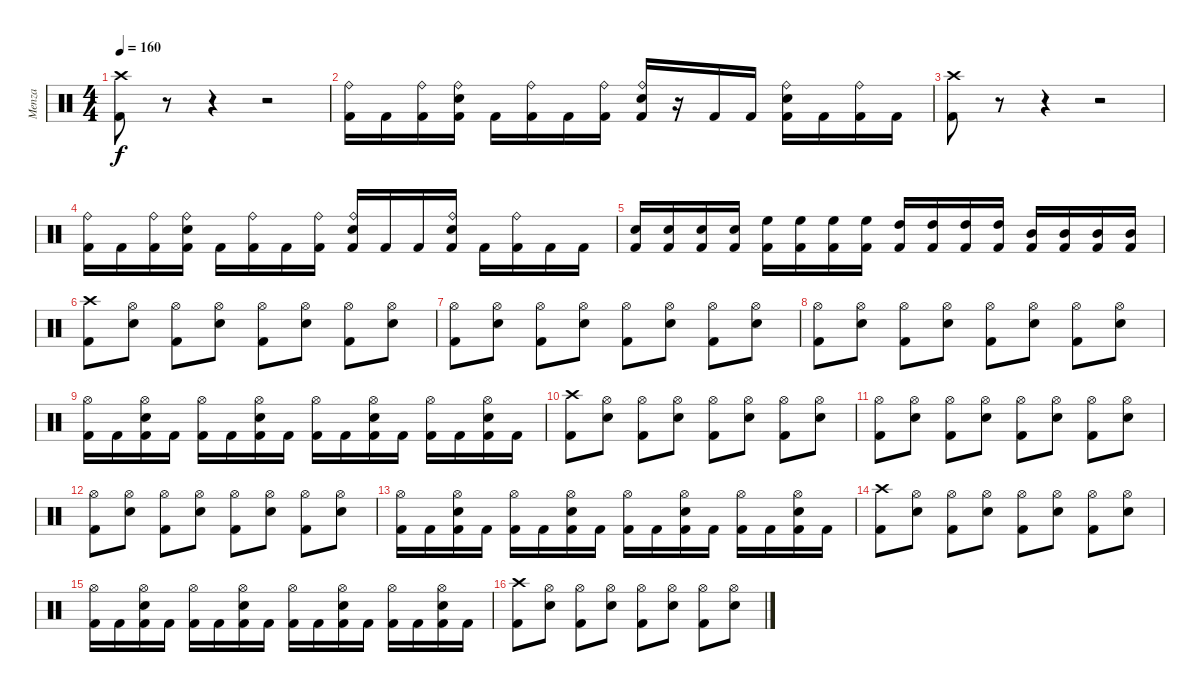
\track ("Menza" "Menza") {instrument percussion}
\staff {score}
\articulation defaults
\ts (4 4)
\tempo 160
\clef neutral
\ks c
("Crash high (hit)" "Kick (hit) 2").8{dy f} r.8 r.4 r.2 |
("Ride (bell)" "Kick (hit) 2").16 "Kick (hit) 2".16 ("Ride (bell)" "Kick (hit) 2").16 ("Ride (bell)" "Snare (hit) 2" "Kick (hit) 2").16 "Kick (hit) 2".16 ("Ride (bell)" "Kick (hit) 2").16 "Kick (hit) 2".16 ("Ride (bell)" "Kick (hit) 2").16 ("Ride (bell)" "Snare (hit) 2" "Kick (hit) 2").16 r.16 "Kick (hit) 2".16 "Kick (hit) 2".16 ("Ride (bell)" "Snare (hit) 2" "Kick (hit) 2").16 "Kick (hit) 2".16 ("Ride (bell)" "Kick (hit) 2").16 "Kick (hit) 2".16 |
("Crash high (hit)" "Kick (hit) 2").8 r.8 r.4 r.2 |
("Ride (bell)" "Kick (hit) 2").16 "Kick (hit) 2".16 ("Ride (bell)" "Kick (hit) 2").16 ("Ride (bell)" "Snare (hit) 2" "Kick (hit) 2").16 "Kick (hit) 2".16 ("Ride (bell)" "Kick (hit) 2").16 "Kick (hit) 2".16 ("Ride (bell)" "Kick (hit) 2").16 ("Ride (bell)" "Snare (hit) 2" "Kick (hit) 2").16 "Kick (hit) 2".16 "Kick (hit) 2".16 ("Ride (bell)" "Snare (hit) 2" "Kick (hit) 2").16 "Kick (hit) 2".16 ("Ride (bell)" "Kick (hit) 2").16 "Kick (hit) 2".16 "Kick (hit) 2".16 |
("Snare (hit) 2" "Kick (hit) 2").16 ("Snare (hit) 2" "Kick (hit) 2").16 ("Snare (hit) 2" "Kick (hit) 2").16 ("Snare (hit) 2" "Kick (hit) 2").16 ("High Floor Tom (hit)" "Kick (hit) 2").16 ("High Floor Tom (hit)" "Kick (hit) 2").16 ("High Floor Tom (hit)" "Kick (hit) 2").16 ("High Floor Tom (hit)" "Kick (hit) 2").16 ("High Tom (hit)" "Kick (hit) 2").16 ("High Tom (hit)" "Kick (hit) 2").16 ("High Tom (hit)" "Kick (hit) 2").16 ("High Tom (hit)" "Kick (hit) 2").16 ("Mid Tom (hit)" "Kick (hit) 2").16 ("Mid Tom (hit)" "Kick (hit) 2").16 ("Mid Tom (hit)" "Kick (hit) 2").16 ("Mid Tom (hit)" "Kick (hit) 2").16 |
("Crash high (hit)" "Kick (hit) 2").8 ("Hi-Hat (open)" "Snare (hit) 2").8 ("Hi-Hat (open)" "Kick (hit) 2").8 ("Hi-Hat (open)" "Snare (hit) 2").8 ("Hi-Hat (open)" "Kick (hit) 2").8 ("Hi-Hat (open)" "Snare (hit) 2").8 ("Hi-Hat (open)" "Kick (hit) 2").8 ("Hi-Hat (open)" "Snare (hit) 2").8 |
("Hi-Hat (open)" "Kick (hit) 2").8 ("Hi-Hat (open)" "Snare (hit) 2").8 ("Hi-Hat (open)" "Kick (hit) 2").8 ("Hi-Hat (open)" "Snare (hit) 2").8 ("Hi-Hat (open)" "Kick (hit) 2").8 ("Hi-Hat (open)" "Snare (hit) 2").8 ("Hi-Hat (open)" "Kick (hit) 2").8 ("Hi-Hat (open)" "Snare (hit) 2").8 |
("Hi-Hat (open)" "Kick (hit) 2").8 ("Hi-Hat (open)" "Snare (hit) 2").8 ("Hi-Hat (open)" "Kick (hit) 2").8 ("Hi-Hat (open)" "Snare (hit) 2").8 ("Hi-Hat (open)" "Kick (hit) 2").8 ("Hi-Hat (open)" "Snare (hit) 2").8 ("Hi-Hat (open)" "Kick (hit) 2").8 ("Hi-Hat (open)" "Snare (hit) 2").8 |
("Hi-Hat (open)" "Kick (hit) 2").16 "Kick (hit) 2".16 ("Hi-Hat (open)" "Snare (hit) 2" "Kick (hit) 2").16 "Kick (hit) 2".16 ("Hi-Hat (open)" "Kick (hit) 2").16 "Kick (hit) 2".16 ("Hi-Hat (open)" "Snare (hit) 2" "Kick (hit) 2").16 "Kick (hit) 2".16 ("Hi-Hat (open)" "Kick (hit) 2").16 "Kick (hit) 2".16 ("Hi-Hat (open)" "Snare (hit) 2" "Kick (hit) 2").16 "Kick (hit) 2".16 ("Hi-Hat (open)" "Kick (hit) 2").16 "Kick (hit) 2".16 ("Hi-Hat (open)" "Snare (hit) 2" "Kick (hit) 2").16 "Kick (hit) 2".16 |
("Crash high (hit)" "Kick (hit) 2").8 ("Hi-Hat (open)" "Snare (hit) 2").8 ("Hi-Hat (open)" "Kick (hit) 2").8 ("Hi-Hat (open)" "Snare (hit) 2").8 ("Hi-Hat (open)" "Kick (hit) 2").8 ("Hi-Hat (open)" "Snare (hit) 2").8 ("Hi-Hat (open)" "Kick (hit) 2").8 ("Hi-Hat (open)" "Snare (hit) 2").8 |
("Hi-Hat (open)" "Kick (hit) 2").8 ("Hi-Hat (open)" "Snare (hit) 2").8 ("Hi-Hat (open)" "Kick (hit) 2").8 ("Hi-Hat (open)" "Snare (hit) 2").8 ("Hi-Hat (open)" "Kick (hit) 2").8 ("Hi-Hat (open)" "Snare (hit) 2").8 ("Hi-Hat (open)" "Kick (hit) 2").8 ("Hi-Hat (open)" "Snare (hit) 2").8 |
("Hi-Hat (open)" "Kick (hit) 2").8 ("Hi-Hat (open)" "Snare (hit) 2").8 ("Hi-Hat (open)" "Kick (hit) 2").8 ("Hi-Hat (open)" "Snare (hit) 2").8 ("Hi-Hat (open)" "Kick (hit) 2").8 ("Hi-Hat (open)" "Snare (hit) 2").8 ("Hi-Hat (open)" "Kick (hit) 2").8 ("Hi-Hat (open)" "Snare (hit) 2").8 |
("Hi-Hat (open)" "Kick (hit) 2").16 "Kick (hit) 2".16 ("Hi-Hat (open)" "Snare (hit) 2" "Kick (hit) 2").16 "Kick (hit) 2".16 ("Hi-Hat (open)" "Kick (hit) 2").16 "Kick (hit) 2".16 ("Hi-Hat (open)" "Snare (hit) 2" "Kick (hit) 2").16 "Kick (hit) 2".16 ("Hi-Hat (open)" "Kick (hit) 2").16 "Kick (hit) 2".16 ("Hi-Hat (open)" "Snare (hit) 2" "Kick (hit) 2").16 "Kick (hit) 2".16 ("Hi-Hat (open)" "Kick (hit) 2").16 "Kick (hit) 2".16 ("Hi-Hat (open)" "Snare (hit) 2" "Kick (hit) 2").16 "Kick (hit) 2".16 |
("Crash high (hit)" "Kick (hit) 2").8 ("Hi-Hat (open)" "Snare (hit) 2").8 ("Hi-Hat (open)" "Kick (hit) 2").8 ("Hi-Hat (open)" "Snare (hit) 2").8 ("Hi-Hat (open)" "Kick (hit) 2").8 ("Hi-Hat (open)" "Snare (hit) 2").8 ("Hi-Hat (open)" "Kick (hit) 2").8 ("Hi-Hat (open)" "Snare (hit) 2").8 |
("Hi-Hat (open)" "Kick (hit) 2").16 "Kick (hit) 2".16 ("Hi-Hat (open)" "Snare (hit) 2" "Kick (hit) 2").16 "Kick (hit) 2".16 ("Hi-Hat (open)" "Kick (hit) 2").16 "Kick (hit) 2".16 ("Hi-Hat (open)" "Snare (hit) 2" "Kick (hit) 2").16 "Kick (hit) 2".16 ("Hi-Hat (open)" "Kick (hit) 2").16 "Kick (hit) 2".16 ("Hi-Hat (open)" "Snare (hit) 2" "Kick (hit) 2").16 "Kick (hit) 2".16 ("Hi-Hat (open)" "Kick (hit) 2").16 "Kick (hit) 2".16 ("Hi-Hat (open)" "Snare (hit) 2" "Kick (hit) 2").16 "Kick (hit) 2".16 |
("Crash high (hit)" "Kick (hit) 2").8 ("Hi-Hat (open)" "Snare (hit) 2").8 ("Hi-Hat (open)" "Kick (hit) 2").8 ("Hi-Hat (open)" "Snare (hit) 2").8 ("Hi-Hat (open)" "Kick (hit) 2").8 ("Hi-Hat (open)" "Snare (hit) 2").8 ("Hi-Hat (open)" "Kick (hit) 2").8 ("Hi-Hat (open)" "Snare (hit) 2").8
